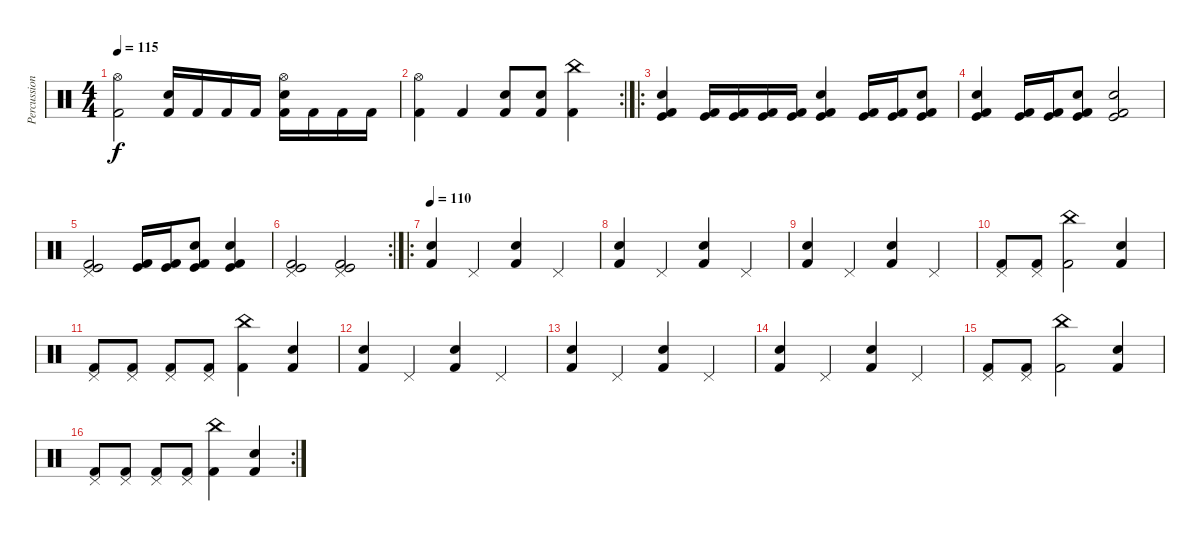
\track ("Percussion" "Percussion") {instrument percussion}
\staff {score}
\articulation defaults
\ts (4 4)
\tempo 115
\clef neutral
\ks c
("Hi-Hat (open)" "Kick (hit) 2").2{dy f} ("Snare (hit) 2" "Kick (hit) 2").16 "Kick (hit) 2".16 "Kick (hit) 2".16 "Kick (hit) 2".16 ("Hi-Hat (open)" "Snare (hit) 2" "Kick (hit) 2").16 "Kick (hit) 2".16 "Kick (hit) 2".16 "Kick (hit) 2".16 |
\rc 2
("Hi-Hat (open)" "Kick (hit) 2").4 "Kick (hit) 2".4 ("Snare (hit) 2" "Kick (hit) 2").8 ("Snare (hit) 2" "Kick (hit) 2").8 ("China (hit)" "Kick (hit) 2").4 |
\ro
("Snare (hit) 2" "Kick (hit)" "Kick (hit) 2").4 ("Kick (hit)" "Kick (hit) 2").16 ("Kick (hit)" "Kick (hit) 2").16 ("Kick (hit)" "Kick (hit) 2").16 ("Kick (hit)" "Kick (hit) 2").16 ("Snare (hit) 2" "Kick (hit)" "Kick (hit) 2").4 ("Kick (hit)" "Kick (hit) 2").16 ("Kick (hit)" "Kick (hit) 2").16 ("Snare (hit) 2" "Kick (hit)" "Kick (hit) 2").8 |
("Snare (hit) 2" "Kick (hit)" "Kick (hit) 2").4 ("Kick (hit)" "Kick (hit) 2").16 ("Kick (hit)" "Kick (hit) 2").16 ("Snare (hit) 2" "Kick (hit)" "Kick (hit) 2").8 ("Snare (hit) 2" "Kick (hit)" "Kick (hit) 2").2 |
("Kick (hit) 2" "Kick (hit)" "Pedal Hi-Hat (hit)").2 ("Kick (hit)" "Kick (hit) 2").16 ("Kick (hit)" "Kick (hit) 2").16 ("Snare (hit) 2" "Kick (hit)" "Kick (hit) 2").8 ("Snare (hit) 2" "Kick (hit)" "Kick (hit) 2").4 |
\rc 2
("Kick (hit) 2" "Kick (hit)" "Pedal Hi-Hat (hit)").2 ("Kick (hit) 2" "Kick (hit)" "Pedal Hi-Hat (hit)").2 |
\ro
\tempo 110
("Snare (hit) 2" "Kick (hit) 2").4 "Pedal Hi-Hat (hit)".4 ("Snare (hit) 2" "Kick (hit) 2").4 "Pedal Hi-Hat (hit)".4 |
("Snare (hit) 2" "Kick (hit) 2").4 "Pedal Hi-Hat (hit)".4 ("Snare (hit) 2" "Kick (hit) 2").4 "Pedal Hi-Hat (hit)".4 |
("Snare (hit) 2" "Kick (hit) 2").4 "Pedal Hi-Hat (hit)".4 ("Snare (hit) 2" "Kick (hit) 2").4 "Pedal Hi-Hat (hit)".4 |
("Pedal Hi-Hat (hit)" "Kick (hit) 2").8 ("Pedal Hi-Hat (hit)" "Kick (hit) 2").8 ("China (hit)" "Kick (hit) 2").2 ("Snare (hit) 2" "Kick (hit) 2").4 |
("Pedal Hi-Hat (hit)" "Kick (hit) 2").8 ("Pedal Hi-Hat (hit)" "Kick (hit) 2").8 ("Pedal Hi-Hat (hit)" "Kick (hit) 2").8 ("Pedal Hi-Hat (hit)" "Kick (hit) 2").8 ("China (hit)" "Kick (hit) 2").4 ("Snare (hit) 2" "Kick (hit) 2").4 |
("Snare (hit) 2" "Kick (hit) 2").4 "Pedal Hi-Hat (hit)".4 ("Snare (hit) 2" "Kick (hit) 2").4 "Pedal Hi-Hat (hit)".4 |
("Snare (hit) 2" "Kick (hit) 2").4 "Pedal Hi-Hat (hit)".4 ("Snare (hit) 2" "Kick (hit) 2").4 "Pedal Hi-Hat (hit)".4 |
("Snare (hit) 2" "Kick (hit) 2").4 "Pedal Hi-Hat (hit)".4 ("Snare (hit) 2" "Kick (hit) 2").4 "Pedal Hi-Hat (hit)".4 |
("Pedal Hi-Hat (hit)" "Kick (hit) 2").8 ("Pedal Hi-Hat (hit)" "Kick (hit) 2").8 ("China (hit)" "Kick (hit) 2").2 ("Snare (hit) 2" "Kick (hit) 2").4 |
\rc 2
("Pedal Hi-Hat (hit)" "Kick (hit) 2").8 ("Pedal Hi-Hat (hit)" "Kick (hit) 2").8 ("Pedal Hi-Hat (hit)" "Kick (hit) 2").8 ("Pedal Hi-Hat (hit)" "Kick (hit) 2").8 ("China (hit)" "Kick (hit) 2").4 ("Snare (hit) 2" "Kick (hit) 2").4
